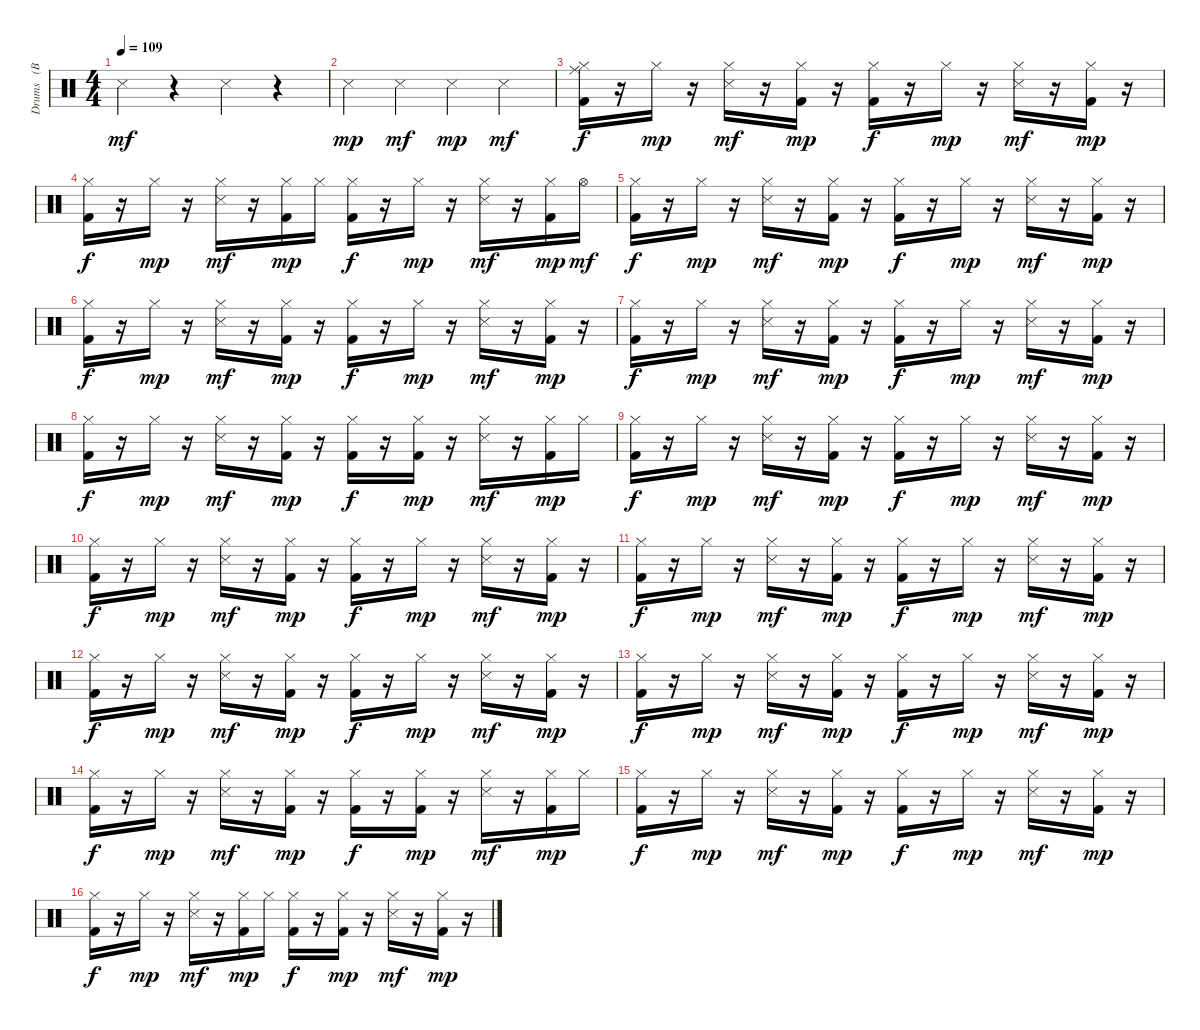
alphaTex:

\track ("Drums   (BB)" "Drums   (B") {instrument percussion}
\staff {score}
\articulation defaults
\ts (4 4)
\tempo 109
\clef neutral
\ks c "Snare (side stick) 3".4{dy mf}
r.4 "Snare (side stick) 3".4 r.4 |
"Snare (side stick) 3".4{dy mp} "Snare (side stick) 3".4{dy mf} "Snare (side stick) 3".4{dy mp} "Snare (side stick) 3".4{dy mf} |
("Kick (hit) 2" "Hi-Hat (closed)" "Ride (middle)").16{dy f} r.16 "Hi-Hat (closed)".16{dy mp} r.16 ("Hi-Hat (closed)" "Snare (side stick) 3").16{dy mf} r.16 ("Kick (hit) 2" "Hi-Hat (closed)").16{dy mp} r.16 ("Kick (hit) 2" "Hi-Hat (closed)").16{dy f} r.16 "Hi-Hat (closed)".16{dy mp} r.16 ("Hi-Hat (closed)" "Snare (side stick) 3").16{dy mf} r.16 ("Kick (hit) 2" "Hi-Hat (closed)").16{dy mp} r.16 |
("Kick (hit) 2" "Hi-Hat (closed)").16{dy f} r.16 "Hi-Hat (closed)".16{dy mp} r.16 ("Hi-Hat (closed)" "Snare (side stick) 3").16{dy mf} r.16 ("Kick (hit) 2" "Hi-Hat (closed)").16{dy mp} "Hi-Hat (closed)".16 ("Kick (hit) 2" "Hi-Hat (closed)").16{dy f} r.16 "Hi-Hat (closed)".16{dy mp} r.16 ("Hi-Hat (closed)" "Snare (side stick) 3").16{dy mf} r.16 ("Kick (hit) 2" "Hi-Hat (closed)").16{dy mp} "Hi-Hat (open)".16{dy mf} |
("Kick (hit) 2" "Hi-Hat (closed)").16{dy f} r.16 "Hi-Hat (closed)".16{dy mp} r.16 ("Hi-Hat (closed)" "Snare (side stick) 3").16{dy mf} r.16 ("Kick (hit) 2" "Hi-Hat (closed)").16{dy mp} r.16 ("Kick (hit) 2" "Hi-Hat (closed)").16{dy f} r.16 "Hi-Hat (closed)".16{dy mp} r.16 ("Hi-Hat (closed)" "Snare (side stick) 3").16{dy mf} r.16 ("Kick (hit) 2" "Hi-Hat (closed)").16{dy mp} r.16 |
("Kick (hit) 2" "Hi-Hat (closed)").16{dy f} r.16 "Hi-Hat (closed)".16{dy mp} r.16 ("Hi-Hat (closed)" "Snare (side stick) 3").16{dy mf} r.16 ("Kick (hit) 2" "Hi-Hat (closed)").16{dy mp} r.16 ("Kick (hit) 2" "Hi-Hat (closed)").16{dy f} r.16 "Hi-Hat (closed)".16{dy mp} r.16 ("Hi-Hat (closed)" "Snare (side stick) 3").16{dy mf} r.16 ("Kick (hit) 2" "Hi-Hat (closed)").16{dy mp} r.16 |
("Kick (hit) 2" "Hi-Hat (closed)").16{dy f} r.16 "Hi-Hat (closed)".16{dy mp} r.16 ("Hi-Hat (closed)" "Snare (side stick) 3").16{dy mf} r.16 ("Kick (hit) 2" "Hi-Hat (closed)").16{dy mp} r.16 ("Kick (hit) 2" "Hi-Hat (closed)").16{dy f} r.16 "Hi-Hat (closed)".16{dy mp} r.16 ("Hi-Hat (closed)" "Snare (side stick) 3").16{dy mf} r.16 ("Kick (hit) 2" "Hi-Hat (closed)").16{dy mp} r.16 |
("Kick (hit) 2" "Hi-Hat (closed)").16{dy f} r.16 "Hi-Hat (closed)".16{dy mp} r.16 ("Hi-Hat (closed)" "Snare (side stick) 3").16{dy mf} r.16 ("Kick (hit) 2" "Hi-Hat (closed)").16{dy mp} r.16 ("Kick (hit) 2" "Hi-Hat (closed)").16{dy f} r.16 ("Kick (hit) 2" "Hi-Hat (closed)").16{dy mp} r.16 ("Hi-Hat (closed)" "Snare (side stick) 3").16{dy mf} r.16 ("Kick (hit) 2" "Hi-Hat (closed)").16{dy mp} "Hi-Hat (closed)".16 |
("Kick (hit) 2" "Hi-Hat (closed)").16{dy f} r.16 "Hi-Hat (closed)".16{dy mp} r.16 ("Hi-Hat (closed)" "Snare (side stick) 3").16{dy mf} r.16 ("Kick (hit) 2" "Hi-Hat (closed)").16{dy mp} r.16 ("Kick (hit) 2" "Hi-Hat (closed)").16{dy f} r.16 "Hi-Hat (closed)".16{dy mp} r.16 ("Hi-Hat (closed)" "Snare (side stick) 3").16{dy mf} r.16 ("Kick (hit) 2" "Hi-Hat (closed)").16{dy mp} r.16 |
("Kick (hit) 2" "Hi-Hat (closed)").16{dy f} r.16 "Hi-Hat (closed)".16{dy mp} r.16 ("Hi-Hat (closed)" "Snare (side stick) 3").16{dy mf} r.16 ("Kick (hit) 2" "Hi-Hat (closed)").16{dy mp} r.16 ("Kick (hit) 2" "Hi-Hat (closed)").16{dy f} r.16 "Hi-Hat (closed)".16{dy mp} r.16 ("Hi-Hat (closed)" "Snare (side stick) 3").16{dy mf} r.16 ("Kick (hit) 2" "Hi-Hat (closed)").16{dy mp} r.16 |
("Kick (hit) 2" "Hi-Hat (closed)").16{dy f} r.16 "Hi-Hat (closed)".16{dy mp} r.16 ("Hi-Hat (closed)" "Snare (side stick) 3").16{dy mf} r.16 ("Kick (hit) 2" "Hi-Hat (closed)").16{dy mp} r.16 ("Kick (hit) 2" "Hi-Hat (closed)").16{dy f} r.16 "Hi-Hat (closed)".16{dy mp} r.16 ("Hi-Hat (closed)" "Snare (side stick) 3").16{dy mf} r.16 ("Kick (hit) 2" "Hi-Hat (closed)").16{dy mp} r.16 |
("Kick (hit) 2" "Hi-Hat (closed)").16{dy f} r.16 "Hi-Hat (closed)".16{dy mp} r.16 ("Hi-Hat (closed)" "Snare (side stick) 3").16{dy mf} r.16 ("Kick (hit) 2" "Hi-Hat (closed)").16{dy mp} r.16 ("Kick (hit) 2" "Hi-Hat (closed)").16{dy f} r.16 "Hi-Hat (closed)".16{dy mp} r.16 ("Hi-Hat (closed)" "Snare (side stick) 3").16{dy mf} r.16 ("Kick (hit) 2" "Hi-Hat (closed)").16{dy mp} r.16 |
("Kick (hit) 2" "Hi-Hat (closed)").16{dy f} r.16 "Hi-Hat (closed)".16{dy mp} r.16 ("Hi-Hat (closed)" "Snare (side stick) 3").16{dy mf} r.16 ("Kick (hit) 2" "Hi-Hat (closed)").16{dy mp} r.16 ("Kick (hit) 2" "Hi-Hat (closed)").16{dy f} r.16 "Hi-Hat (closed)".16{dy mp} r.16 ("Hi-Hat (closed)" "Snare (side stick) 3").16{dy mf} r.16 ("Kick (hit) 2" "Hi-Hat (closed)").16{dy mp} r.16 |
("Kick (hit) 2" "Hi-Hat (closed)").16{dy f} r.16 "Hi-Hat (closed)".16{dy mp} r.16 ("Hi-Hat (closed)" "Snare (side stick) 3").16{dy mf} r.16 ("Kick (hit) 2" "Hi-Hat (closed)").16{dy mp} r.16 ("Kick (hit) 2" "Hi-Hat (closed)").16{dy f} r.16 ("Kick (hit) 2" "Hi-Hat (closed)").16{dy mp} r.16 ("Hi-Hat (closed)" "Snare (side stick) 3").16{dy mf} r.16 ("Kick (hit) 2" "Hi-Hat (closed)").16{dy mp} "Hi-Hat (closed)".16 |
("Kick (hit) 2" "Hi-Hat (closed)").16{dy f} r.16 "Hi-Hat (closed)".16{dy mp} r.16 ("Hi-Hat (closed)" "Snare (side stick) 3").16{dy mf} r.16 ("Kick (hit) 2" "Hi-Hat (closed)").16{dy mp} r.16 ("Kick (hit) 2" "Hi-Hat (closed)").16{dy f} r.16 "Hi-Hat (closed)".16{dy mp} r.16 ("Hi-Hat (closed)" "Snare (side stick) 3").16{dy mf} r.16 ("Kick (hit) 2" "Hi-Hat (closed)").16{dy mp} r.16 |
("Kick (hit) 2" "Hi-Hat (closed)").16{dy f} r.16 "Hi-Hat (closed)".16{dy mp} r.16 ("Hi-Hat (closed)" "Snare (side stick) 3").16{dy mf} r.16 ("Kick (hit) 2" "Hi-Hat (closed)").16{dy mp} "Hi-Hat (closed)".16 ("Kick (hit) 2" "Hi-Hat (closed)").16{dy f} r.16 ("Kick (hit) 2" "Hi-Hat (closed)").16{dy mp} r.16 ("Hi-Hat (closed)" "Snare (side stick) 3").16{dy mf} r.16 ("Kick (hit) 2" "Hi-Hat (closed)").16{dy mp} r.16
